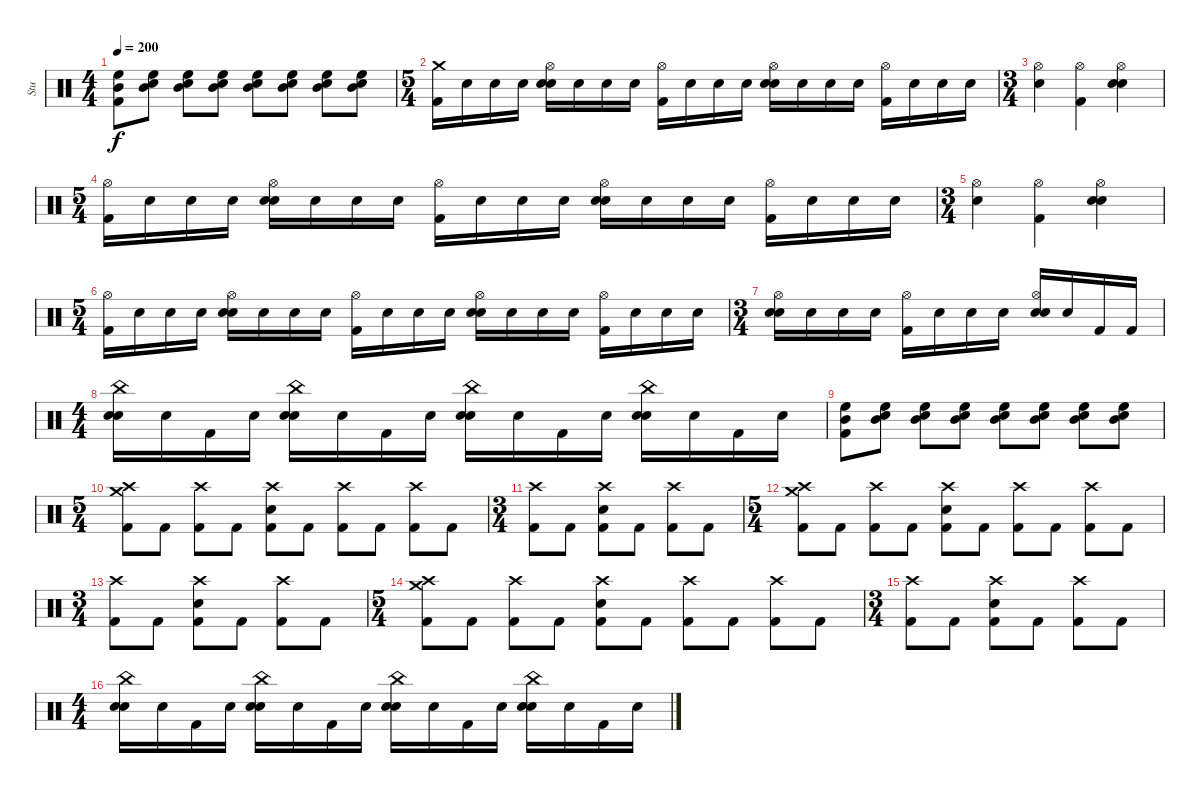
\track ("Stu" "Stu") {instrument percussion}
\staff {score}
\articulation defaults
\ts (4 4)
\tempo 200
\clef neutral
\ks c
("High Floor Tom (hit)" "Mid Tom (hit)" "Kick (hit) 2"{x}).8{dy f} ("High Floor Tom (hit)" "Mid Tom (hit)" "Snare (hit)"{x}).8 ("High Floor Tom (hit)" "Mid Tom (hit)" "Snare (hit)"{x}).8 ("High Floor Tom (hit)" "Mid Tom (hit)" "Snare (hit)"{x}).8 ("High Floor Tom (hit)" "Mid Tom (hit)" "Snare (hit)"{x}).8 ("High Floor Tom (hit)" "Mid Tom (hit)" "Snare (hit)"{x}).8 ("High Floor Tom (hit)" "Mid Tom (hit)" "Snare (hit)"{x}).8 ("High Floor Tom (hit)" "Mid Tom (hit)" "Snare (hit)"{x}).8 |
\ts (5 4)
("Crash medium (hit)" "Kick (hit) 2").16 "Snare (hit)"{x}.16 "Snare (hit)"{x}.16 "Snare (hit)"{x}.16 ("Hi-Hat (open)" "Electric Snare (hit)" "Snare (hit)"{x}).16 "Snare (hit)"{x}.16 "Snare (hit)"{x}.16 "Snare (hit)"{x}.16 ("Hi-Hat (open)" "Kick (hit) 2").16 "Snare (hit)"{x}.16 "Snare (hit)"{x}.16 "Snare (hit)"{x}.16 ("Hi-Hat (open)" "Electric Snare (hit)" "Snare (hit)"{x}).16 "Snare (hit)"{x}.16 "Snare (hit)"{x}.16 "Snare (hit)"{x}.16 ("Hi-Hat (open)" "Kick (hit) 2").16 "Snare (hit)"{x}.16 "Snare (hit)"{x}.16 "Snare (hit)"{x}.16 |
\ts (3 4)
("Hi-Hat (open)" "Electric Snare (hit)").4 ("Hi-Hat (open)" "Kick (hit) 2").4 ("Hi-Hat (open)" "Electric Snare (hit)" "Snare (hit)"{x}).4 |
\ts (5 4)
("Hi-Hat (open)" "Kick (hit) 2").16 "Snare (hit)"{x}.16 "Snare (hit)"{x}.16 "Snare (hit)"{x}.16 ("Hi-Hat (open)" "Electric Snare (hit)" "Snare (hit)"{x}).16 "Snare (hit)"{x}.16 "Snare (hit)"{x}.16 "Snare (hit)"{x}.16 ("Hi-Hat (open)" "Kick (hit) 2").16 "Snare (hit)"{x}.16 "Snare (hit)"{x}.16 "Snare (hit)"{x}.16 ("Hi-Hat (open)" "Electric Snare (hit)" "Snare (hit)"{x}).16 "Snare (hit)"{x}.16 "Snare (hit)"{x}.16 "Snare (hit)"{x}.16 ("Hi-Hat (open)" "Kick (hit) 2").16 "Snare (hit)"{x}.16 "Snare (hit)"{x}.16 "Snare (hit)"{x}.16 |
\ts (3 4)
("Hi-Hat (open)" "Electric Snare (hit)").4 ("Hi-Hat (open)" "Kick (hit) 2").4 ("Hi-Hat (open)" "Electric Snare (hit)" "Snare (hit)"{x}).4 |
\ts (5 4)
("Hi-Hat (open)" "Kick (hit) 2").16 "Snare (hit)"{x}.16 "Snare (hit)"{x}.16 "Snare (hit)"{x}.16 ("Hi-Hat (open)" "Electric Snare (hit)" "Snare (hit)"{x}).16 "Snare (hit)"{x}.16 "Snare (hit)"{x}.16 "Snare (hit)"{x}.16 ("Hi-Hat (open)" "Kick (hit) 2").16 "Snare (hit)"{x}.16 "Snare (hit)"{x}.16 "Snare (hit)"{x}.16 ("Hi-Hat (open)" "Electric Snare (hit)" "Snare (hit)"{x}).16 "Snare (hit)"{x}.16 "Snare (hit)"{x}.16 "Snare (hit)"{x}.16 ("Hi-Hat (open)" "Kick (hit) 2").16 "Snare (hit)"{x}.16 "Snare (hit)"{x}.16 "Snare (hit)"{x}.16 |
\ts (3 4)
("Hi-Hat (open)" "Electric Snare (hit)" "Snare (hit)"{x}).16 "Snare (hit)"{x}.16 "Snare (hit)"{x}.16 "Snare (hit)"{x}.16 ("Hi-Hat (open)" "Kick (hit) 2").16 "Snare (hit)"{x}.16 "Snare (hit)"{x}.16 "Snare (hit)"{x}.16 ("Hi-Hat (open)" "Electric Snare (hit)" "Snare (hit)"{x}).16 "Snare (hit)"{x}.16 "Kick (hit) 2".16 "Kick (hit) 2".16 |
\ts (4 4)
("China (hit)" "Electric Snare (hit)" "Snare (hit)"{x}).16 "Snare (hit)"{x}.16 "Kick (hit) 2".16 "Snare (hit)"{x}.16 ("China (hit)" "Electric Snare (hit)" "Snare (hit)"{x}).16 "Snare (hit)"{x}.16 "Kick (hit) 2".16 "Snare (hit)"{x}.16 ("China (hit)" "Electric Snare (hit)" "Snare (hit)"{x}).16 "Snare (hit)"{x}.16 "Kick (hit) 2".16 "Snare (hit)"{x}.16 ("China (hit)" "Electric Snare (hit)" "Snare (hit)"{x}).16 "Snare (hit)"{x}.16 "Kick (hit) 2".16 "Snare (hit)"{x}.16 |
("High Floor Tom (hit)" "Mid Tom (hit)" "Kick (hit) 2"{x}).8 ("High Floor Tom (hit)" "Mid Tom (hit)" "Snare (hit)"{x}).8 ("High Floor Tom (hit)" "Mid Tom (hit)" "Snare (hit)"{x}).8 ("High Floor Tom (hit)" "Mid Tom (hit)" "Snare (hit)"{x}).8 ("High Floor Tom (hit)" "Mid Tom (hit)" "Snare (hit)"{x}).8 ("High Floor Tom (hit)" "Mid Tom (hit)" "Snare (hit)"{x}).8 ("High Floor Tom (hit)" "Mid Tom (hit)" "Snare (hit)"{x}).8 ("High Floor Tom (hit)" "Mid Tom (hit)" "Snare (hit)"{x}).8 |
\ts (5 4)
("Crash medium (hit)" "Crash high (hit)" "Kick (hit) 2").8 "Kick (hit) 2".8 ("Crash high (hit)" "Kick (hit) 2").8 "Kick (hit) 2".8 ("Crash high (hit)" "Electric Snare (hit)" "Kick (hit) 2").8 "Kick (hit) 2".8 ("Crash high (hit)" "Kick (hit) 2").8 "Kick (hit) 2".8 ("Crash high (hit)" "Kick (hit) 2").8 "Kick (hit) 2".8 |
\ts (3 4)
("Crash high (hit)" "Kick (hit) 2").8 "Kick (hit) 2".8 ("Crash high (hit)" "Electric Snare (hit)" "Kick (hit) 2").8 "Kick (hit) 2".8 ("Crash high (hit)" "Kick (hit) 2").8 "Kick (hit) 2".8 |
\ts (5 4)
("Crash medium (hit)" "Crash high (hit)" "Kick (hit) 2").8 "Kick (hit) 2".8 ("Crash high (hit)" "Kick (hit) 2").8 "Kick (hit) 2".8 ("Crash high (hit)" "Electric Snare (hit)" "Kick (hit) 2").8 "Kick (hit) 2".8 ("Crash high (hit)" "Kick (hit) 2").8 "Kick (hit) 2".8 ("Crash high (hit)" "Kick (hit) 2").8 "Kick (hit) 2".8 |
\ts (3 4)
("Crash high (hit)" "Kick (hit) 2").8 "Kick (hit) 2".8 ("Crash high (hit)" "Electric Snare (hit)" "Kick (hit) 2").8 "Kick (hit) 2".8 ("Crash high (hit)" "Kick (hit) 2").8 "Kick (hit) 2".8 |
\ts (5 4)
("Crash medium (hit)" "Crash high (hit)" "Kick (hit) 2").8 "Kick (hit) 2".8 ("Crash high (hit)" "Kick (hit) 2").8 "Kick (hit) 2".8 ("Crash high (hit)" "Electric Snare (hit)" "Kick (hit) 2").8 "Kick (hit) 2".8 ("Crash high (hit)" "Kick (hit) 2").8 "Kick (hit) 2".8 ("Crash high (hit)" "Kick (hit) 2").8 "Kick (hit) 2".8 |
\ts (3 4)
("Crash high (hit)" "Kick (hit) 2").8 "Kick (hit) 2".8 ("Crash high (hit)" "Electric Snare (hit)" "Kick (hit) 2").8 "Kick (hit) 2".8 ("Crash high (hit)" "Kick (hit) 2").8 "Kick (hit) 2".8 |
\ts (4 4)
("China (hit)" "Electric Snare (hit)" "Snare (hit)"{x}).16 "Snare (hit)"{x}.16 "Kick (hit) 2".16 "Snare (hit)"{x}.16 ("China (hit)" "Electric Snare (hit)" "Snare (hit)"{x}).16 "Snare (hit)"{x}.16 "Kick (hit) 2".16 "Snare (hit)"{x}.16 ("China (hit)" "Electric Snare (hit)" "Snare (hit)"{x}).16 "Snare (hit)"{x}.16 "Kick (hit) 2".16 "Snare (hit)"{x}.16 ("China (hit)" "Electric Snare (hit)" "Snare (hit)"{x}).16 "Snare (hit)"{x}.16 "Kick (hit) 2".16 "Snare (hit)"{x}.16
